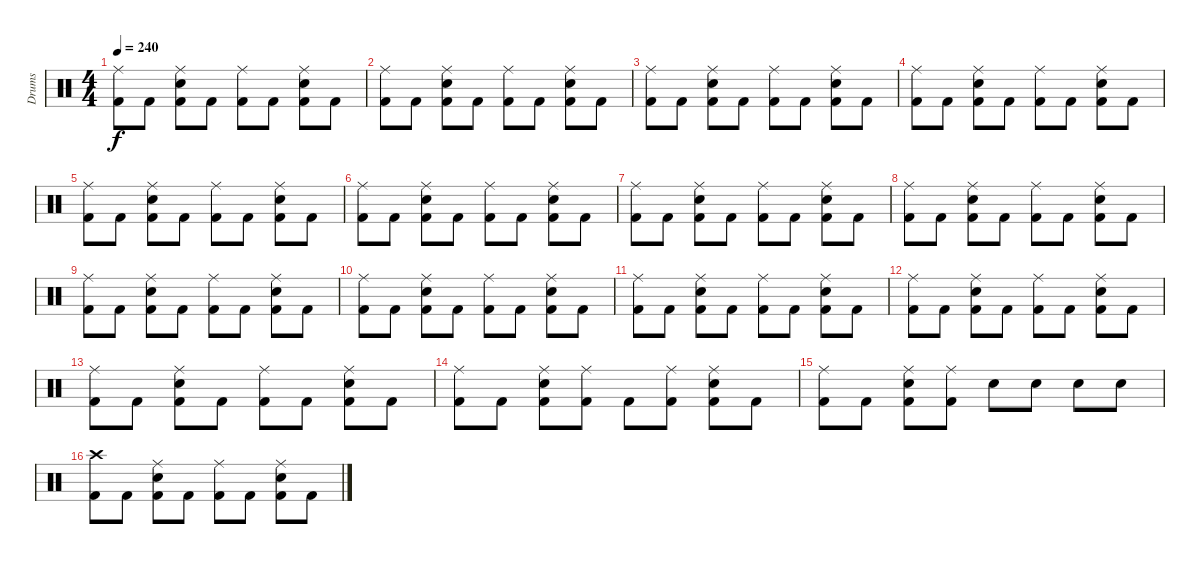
\track ("Drums" "Drums") {instrument percussion}
\staff {score}
\articulation defaults
\ts (4 4)
\tempo 240
\clef neutral
\ks c
("Ride (middle)" "Kick (hit) 2").8{dy f} "Kick (hit) 2".8 ("Ride (middle)" "Snare (hit) 2" "Kick (hit) 2").8 "Kick (hit) 2".8 ("Ride (middle)" "Kick (hit) 2").8 "Kick (hit) 2".8 ("Ride (middle)" "Snare (hit) 2" "Kick (hit) 2").8 "Kick (hit) 2".8 |
("Ride (middle)" "Kick (hit) 2").8 "Kick (hit) 2".8 ("Ride (middle)" "Snare (hit) 2" "Kick (hit) 2").8 "Kick (hit) 2".8 ("Ride (middle)" "Kick (hit) 2").8 "Kick (hit) 2".8 ("Ride (middle)" "Snare (hit) 2" "Kick (hit) 2").8 "Kick (hit) 2".8 |
("Ride (middle)" "Kick (hit) 2").8 "Kick (hit) 2".8 ("Ride (middle)" "Snare (hit) 2" "Kick (hit) 2").8 "Kick (hit) 2".8 ("Ride (middle)" "Kick (hit) 2").8 "Kick (hit) 2".8 ("Ride (middle)" "Snare (hit) 2" "Kick (hit) 2").8 "Kick (hit) 2".8 |
("Ride (middle)" "Kick (hit) 2").8 "Kick (hit) 2".8 ("Ride (middle)" "Snare (hit) 2" "Kick (hit) 2").8 "Kick (hit) 2".8 ("Ride (middle)" "Kick (hit) 2").8 "Kick (hit) 2".8 ("Ride (middle)" "Snare (hit) 2" "Kick (hit) 2").8 "Kick (hit) 2".8 |
("Ride (middle)" "Kick (hit) 2").8 "Kick (hit) 2".8 ("Ride (middle)" "Snare (hit) 2" "Kick (hit) 2").8 "Kick (hit) 2".8 ("Ride (middle)" "Kick (hit) 2").8 "Kick (hit) 2".8 ("Ride (middle)" "Snare (hit) 2" "Kick (hit) 2").8 "Kick (hit) 2".8 |
("Ride (middle)" "Kick (hit) 2").8 "Kick (hit) 2".8 ("Ride (middle)" "Snare (hit) 2" "Kick (hit) 2").8 "Kick (hit) 2".8 ("Ride (middle)" "Kick (hit) 2").8 "Kick (hit) 2".8 ("Ride (middle)" "Snare (hit) 2" "Kick (hit) 2").8 "Kick (hit) 2".8 |
("Ride (middle)" "Kick (hit) 2").8 "Kick (hit) 2".8 ("Ride (middle)" "Snare (hit) 2" "Kick (hit) 2").8 "Kick (hit) 2".8 ("Ride (middle)" "Kick (hit) 2").8 "Kick (hit) 2".8 ("Ride (middle)" "Snare (hit) 2" "Kick (hit) 2").8 "Kick (hit) 2".8 |
("Ride (middle)" "Kick (hit) 2").8 "Kick (hit) 2".8 ("Ride (middle)" "Snare (hit) 2" "Kick (hit) 2").8 "Kick (hit) 2".8 ("Ride (middle)" "Kick (hit) 2").8 "Kick (hit) 2".8 ("Ride (middle)" "Snare (hit) 2" "Kick (hit) 2").8 "Kick (hit) 2".8 |
("Ride (middle)" "Kick (hit) 2").8 "Kick (hit) 2".8 ("Ride (middle)" "Snare (hit) 2" "Kick (hit) 2").8 "Kick (hit) 2".8 ("Ride (middle)" "Kick (hit) 2").8 "Kick (hit) 2".8 ("Ride (middle)" "Snare (hit) 2" "Kick (hit) 2").8 "Kick (hit) 2".8 |
("Ride (middle)" "Kick (hit) 2").8 "Kick (hit) 2".8 ("Ride (middle)" "Snare (hit) 2" "Kick (hit) 2").8 "Kick (hit) 2".8 ("Ride (middle)" "Kick (hit) 2").8 "Kick (hit) 2".8 ("Ride (middle)" "Snare (hit) 2" "Kick (hit) 2").8 "Kick (hit) 2".8 |
("Ride (middle)" "Kick (hit) 2").8 "Kick (hit) 2".8 ("Ride (middle)" "Snare (hit) 2" "Kick (hit) 2").8 "Kick (hit) 2".8 ("Ride (middle)" "Kick (hit) 2").8 "Kick (hit) 2".8 ("Ride (middle)" "Snare (hit) 2" "Kick (hit) 2").8 "Kick (hit) 2".8 |
("Ride (middle)" "Kick (hit) 2").8 "Kick (hit) 2".8 ("Ride (middle)" "Snare (hit) 2" "Kick (hit) 2").8 "Kick (hit) 2".8 ("Ride (middle)" "Kick (hit) 2").8 "Kick (hit) 2".8 ("Ride (middle)" "Snare (hit) 2" "Kick (hit) 2").8 "Kick (hit) 2".8 |
("Ride (middle)" "Kick (hit) 2").8 "Kick (hit) 2".8 ("Ride (middle)" "Snare (hit) 2" "Kick (hit) 2").8 "Kick (hit) 2".8 ("Ride (middle)" "Kick (hit) 2").8 "Kick (hit) 2".8 ("Ride (middle)" "Snare (hit) 2" "Kick (hit) 2").8 "Kick (hit) 2".8 |
("Ride (middle)" "Kick (hit) 2").8 "Kick (hit) 2".8 ("Ride (middle)" "Snare (hit) 2" "Kick (hit) 2").8 ("Ride (middle)" "Kick (hit) 2").8 "Kick (hit) 2".8 ("Ride (middle)" "Kick (hit) 2").8 ("Ride (middle)" "Snare (hit) 2" "Kick (hit) 2").8 "Kick (hit) 2".8 |
("Ride (middle)" "Kick (hit) 2").8 "Kick (hit) 2".8 ("Ride (middle)" "Snare (hit) 2" "Kick (hit) 2").8 ("Ride (middle)" "Kick (hit) 2").8 "Snare (hit) 2".8 "Snare (hit) 2".8 "Snare (hit) 2".8 "Snare (hit) 2".8 |
("Crash high (hit)" "Kick (hit) 2").8 "Kick (hit) 2".8 ("Ride (middle)" "Snare (hit) 2" "Kick (hit) 2").8 "Kick (hit) 2".8 ("Ride (middle)" "Kick (hit) 2").8 "Kick (hit) 2".8 ("Ride (middle)" "Snare (hit) 2" "Kick (hit) 2").8 "Kick (hit) 2".8
